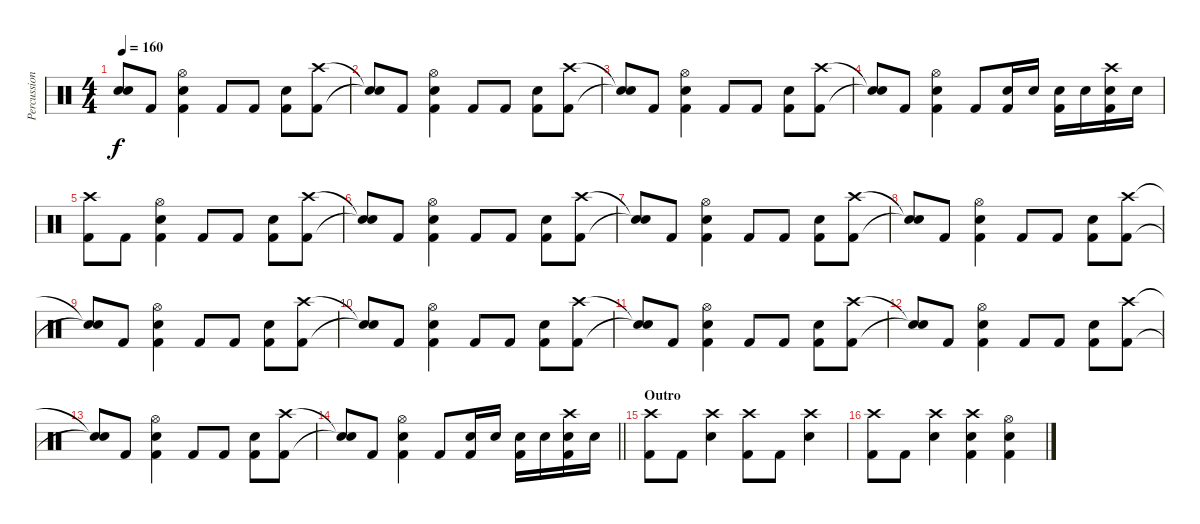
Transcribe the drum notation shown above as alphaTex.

\track ("Percussion" "Percussion") {instrument percussion}
\staff {score}
\articulation defaults
\ts (4 4)
\tempo 160
\clef neutral
\ks c
("Snare (hit)"{t} "Snare (hit)"{t}).8{dy f} "Kick (hit) 2".8 ("Hi-Hat (open)" "Snare (hit) 2" "Kick (hit) 2").4 "Kick (hit) 2".8 "Kick (hit) 2".8 ("Snare (hit) 2" "Kick (hit) 2").8 ("Crash high (hit)" "Kick (hit) 2").8 |
("Snare (hit)"{t} "Snare (hit)"{t}).8 "Kick (hit) 2".8 ("Hi-Hat (open)" "Snare (hit) 2" "Kick (hit) 2").4 "Kick (hit) 2".8 "Kick (hit) 2".8 ("Snare (hit) 2" "Kick (hit) 2").8 ("Crash high (hit)" "Kick (hit) 2").8 |
("Snare (hit)"{t} "Snare (hit)"{t}).8 "Kick (hit) 2".8 ("Hi-Hat (open)" "Snare (hit) 2" "Kick (hit) 2").4 "Kick (hit) 2".8 "Kick (hit) 2".8 ("Snare (hit) 2" "Kick (hit) 2").8 ("Crash high (hit)" "Kick (hit) 2").8 |
("Snare (hit)"{t} "Snare (hit)"{t}).8 "Kick (hit) 2".8 ("Hi-Hat (open)" "Snare (hit) 2" "Kick (hit) 2").4 "Kick (hit) 2".8 ("Snare (hit) 2" "Kick (hit) 2").16 "Snare (hit) 2".16 ("Snare (hit) 2" "Kick (hit) 2").16 "Snare (hit) 2".16 ("Crash high (hit)" "Snare (hit) 2" "Kick (hit) 2").16 "Snare (hit) 2".16 |
("Crash high (hit)" "Kick (hit) 2").8 "Kick (hit) 2".8 ("Hi-Hat (open)" "Snare (hit) 2" "Kick (hit) 2").4 "Kick (hit) 2".8 "Kick (hit) 2".8 ("Snare (hit) 2" "Kick (hit) 2").8 ("Crash high (hit)" "Kick (hit) 2").8 |
("Snare (hit)"{t} "Snare (hit)"{t}).8 "Kick (hit) 2".8 ("Hi-Hat (open)" "Snare (hit) 2" "Kick (hit) 2").4 "Kick (hit) 2".8 "Kick (hit) 2".8 ("Snare (hit) 2" "Kick (hit) 2").8 ("Crash high (hit)" "Kick (hit) 2").8 |
("Snare (hit)"{t} "Snare (hit)"{t}).8 "Kick (hit) 2".8 ("Hi-Hat (open)" "Snare (hit) 2" "Kick (hit) 2").4 "Kick (hit) 2".8 "Kick (hit) 2".8 ("Snare (hit) 2" "Kick (hit) 2").8 ("Crash high (hit)" "Kick (hit) 2").8 |
("Snare (hit)"{t} "Snare (hit)"{t}).8 "Kick (hit) 2".8 ("Hi-Hat (open)" "Snare (hit) 2" "Kick (hit) 2").4 "Kick (hit) 2".8 "Kick (hit) 2".8 ("Snare (hit) 2" "Kick (hit) 2").8 ("Crash high (hit)" "Kick (hit) 2").8 |
("Snare (hit)"{t} "Snare (hit)"{t}).8 "Kick (hit) 2".8 ("Hi-Hat (open)" "Snare (hit) 2" "Kick (hit) 2").4 "Kick (hit) 2".8 "Kick (hit) 2".8 ("Snare (hit) 2" "Kick (hit) 2").8 ("Crash high (hit)" "Kick (hit) 2").8 |
("Snare (hit)"{t} "Snare (hit)"{t}).8 "Kick (hit) 2".8 ("Hi-Hat (open)" "Snare (hit) 2" "Kick (hit) 2").4 "Kick (hit) 2".8 "Kick (hit) 2".8 ("Snare (hit) 2" "Kick (hit) 2").8 ("Crash high (hit)" "Kick (hit) 2").8 |
("Snare (hit)"{t} "Snare (hit)"{t}).8 "Kick (hit) 2".8 ("Hi-Hat (open)" "Snare (hit) 2" "Kick (hit) 2").4 "Kick (hit) 2".8 "Kick (hit) 2".8 ("Snare (hit) 2" "Kick (hit) 2").8 ("Crash high (hit)" "Kick (hit) 2").8 |
("Snare (hit)"{t} "Snare (hit)"{t}).8 "Kick (hit) 2".8 ("Hi-Hat (open)" "Snare (hit) 2" "Kick (hit) 2").4 "Kick (hit) 2".8 "Kick (hit) 2".8 ("Snare (hit) 2" "Kick (hit) 2").8 ("Crash high (hit)" "Kick (hit) 2").8 |
("Snare (hit)"{t} "Snare (hit)"{t}).8 "Kick (hit) 2".8 ("Hi-Hat (open)" "Snare (hit) 2" "Kick (hit) 2").4 "Kick (hit) 2".8 "Kick (hit) 2".8 ("Snare (hit) 2" "Kick (hit) 2").8 ("Crash high (hit)" "Kick (hit) 2").8 |
\barLineRight lightlight
("Snare (hit)"{t} "Snare (hit)"{t}).8 "Kick (hit) 2".8 ("Hi-Hat (open)" "Snare (hit) 2" "Kick (hit) 2").4 "Kick (hit) 2".8 ("Snare (hit) 2" "Kick (hit) 2").16 "Snare (hit) 2".16 ("Snare (hit) 2" "Kick (hit) 2").16 "Snare (hit) 2".16 ("Crash high (hit)" "Snare (hit) 2" "Kick (hit) 2").16 "Snare (hit) 2".16 |
\section ("" "Outro")
("Crash high (hit)" "Kick (hit) 2").8 "Kick (hit) 2".8 ("Crash high (hit)" "Snare (hit) 2").4 ("Crash high (hit)" "Kick (hit) 2").8 "Kick (hit) 2".8 ("Crash high (hit)" "Snare (hit) 2").4 |
("Crash high (hit)" "Kick (hit) 2").8 "Kick (hit) 2".8 ("Crash high (hit)" "Snare (hit) 2").4 ("Crash high (hit)" "Snare (hit) 2" "Kick (hit) 2").4 ("Hi-Hat (open)" "Snare (hit) 2" "Kick (hit) 2").4
